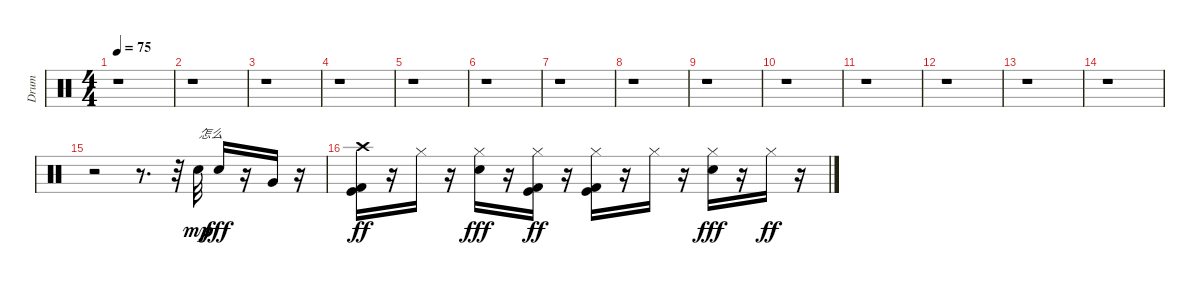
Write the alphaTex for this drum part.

\track ("Drum" "Drum") {instrument percussion}
\staff {score}
\articulation defaults
\ts (4 4)
\tempo 75
\clef neutral
\ks c
r.1{dy mp} |
r.1 |
r.1 |
r.1 |
r.1 |
r.1 |
r.1 |
r.1 |
r.1 |
r.1 |
r.1 |
r.1 |
r.1 |
r.1 |
r.2 r.8{d} r.32 "Electric Snare (hit)".32{txt "怎么"} "Electric Snare (hit)".16{dy fff} r.16 "Very Low Tom (hit)".16 r.16 |
("Crash high (hit)" "Kick (hit)" "Kick (hit) 2").16{dy ff} r.16 "Hi-Hat (closed)".16 r.16 ("Hi-Hat (closed)" "Electric Snare (hit)").16{dy fff} r.16 ("Kick (hit)" "Kick (hit) 2" "Hi-Hat (closed)").16{dy ff} r.16 ("Kick (hit)" "Kick (hit) 2" "Hi-Hat (closed)").16 r.16 "Hi-Hat (closed)".16 r.16 ("Hi-Hat (closed)" "Electric Snare (hit)").16{dy fff} r.16 "Hi-Hat (closed)".16{dy ff} r.16
